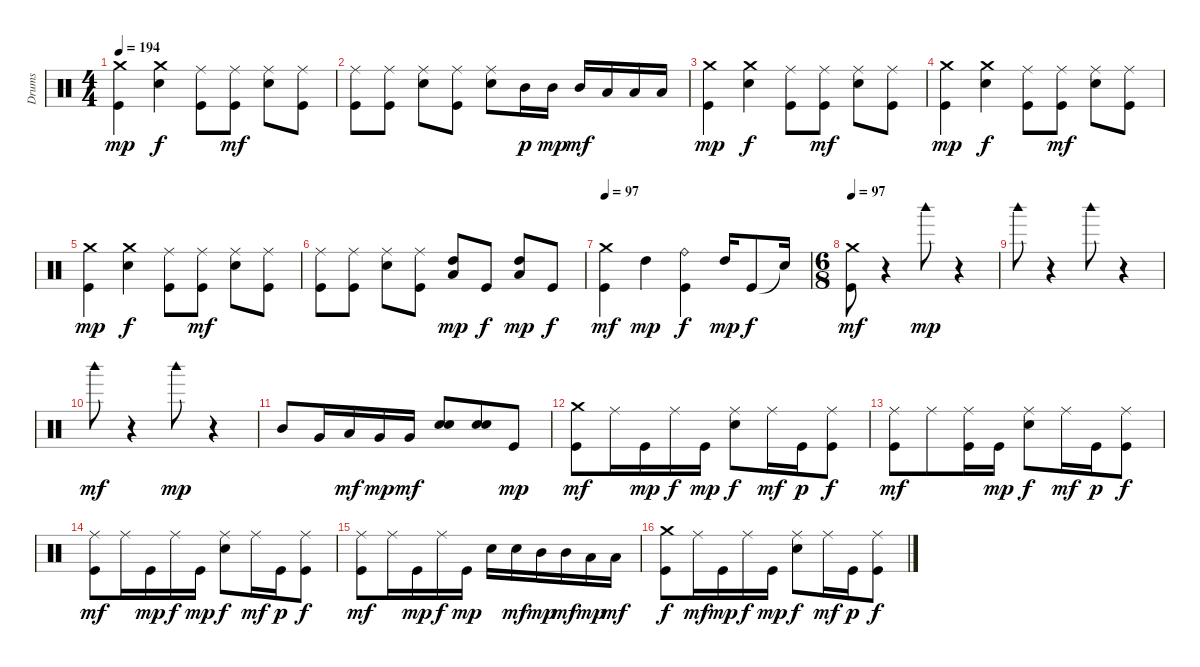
\track ("Drums" "Drums") {instrument percussion}
\staff {score}
\articulation defaults
\ts (4 4)
\tempo 194
\clef neutral
\ks c
("Crash medium (hit)" "Kick (hit)").4{dy mp} ("Crash medium (hit)" "Snare (hit) 2").4{dy f} ("Kick (hit)" "Ride (middle)").8 ("Kick (hit)" "Ride (middle)").8{dy mf} ("Snare (hit) 2" "Ride (middle)").8 ("Kick (hit)" "Ride (middle)").8 |
("Kick (hit)" "Ride (middle)").8 ("Kick (hit)" "Ride (middle)").8 ("Snare (hit) 2" "Ride (middle)").8 ("Kick (hit)" "Ride (middle)").8 ("Snare (hit) 2" "Ride (middle)").8 "Mid Tom (hit)".16{dy p} "Mid Tom (hit)".16{dy mp} "Mid Tom (hit)".16{dy mf} "Low Tom (hit)".16 "Low Tom (hit)".16 "Low Tom (hit)".16 |
("Crash medium (hit)" "Kick (hit)").4{dy mp} ("Crash medium (hit)" "Snare (hit) 2").4{dy f} ("Kick (hit)" "Ride (middle)").8 ("Kick (hit)" "Ride (middle)").8{dy mf} ("Snare (hit) 2" "Ride (middle)").8 ("Kick (hit)" "Ride (middle)").8 |
("Crash medium (hit)" "Kick (hit)").4{dy mp} ("Crash medium (hit)" "Snare (hit) 2").4{dy f} ("Kick (hit)" "Ride (middle)").8 ("Kick (hit)" "Ride (middle)").8{dy mf} ("Snare (hit) 2" "Ride (middle)").8 ("Kick (hit)" "Ride (middle)").8 |
("Crash medium (hit)" "Kick (hit)").4{dy mp} ("Crash medium (hit)" "Snare (hit) 2").4{dy f} ("Kick (hit)" "Ride (middle)").8 ("Kick (hit)" "Ride (middle)").8{dy mf} ("Snare (hit) 2" "Ride (middle)").8 ("Kick (hit)" "Ride (middle)").8 |
("Kick (hit)" "Ride (middle)").8 ("Kick (hit)" "Ride (middle)").8 ("Snare (hit) 2" "Ride (middle)").8 ("Kick (hit)" "Ride (middle)").8 ("Low Tom (hit)" "High Tom (hit)").8{dy mp} "Kick (hit)".8{dy f} ("Low Tom (hit)" "High Tom (hit)").8{dy mp} "Kick (hit)".8{dy f} |
\tempo 97
("Crash medium (hit)" "Kick (hit)").4{dy mf} "High Tom (hit)".4{dy mp} ("Ride (bell)" "Kick (hit)").4{dy f} "High Tom (hit)".16{dy mp} "Kick (hit)".8{dy f} "Snare (hit)"{t}.16 |
\ts (6 8)
\tempo 97
("Crash medium (hit)" "Kick (hit)").8{dy mf} r.4 "Woodblock high (hit)".8{dy mp} r.4 |
"Woodblock high (hit)".8 r.4 "Woodblock high (hit)".8 r.4 |
"Woodblock high (hit)".8{dy mf} r.4 "Woodblock high (hit)".8{dy mp} r.4 |
"Mid Tom (hit)".8 "Very Low Tom (hit)".16 "Low Tom (hit)".16{dy mf} "Very Low Tom (hit)".16{dy mp} "Very Low Tom (hit)".16{dy mf} ("Snare (hit) 2" "Snare (hit) 2").8 ("Snare (hit) 2" "Snare (hit) 2").8 "Kick (hit)".8{dy mp} |
("Crash medium (hit)" "Kick (hit)").8{dy mf} "Ride (middle)".16 "Kick (hit)".16{dy mp} "Ride (middle)".16{dy f} "Kick (hit)".16{dy mp} ("Snare (hit) 2" "Ride (middle)").8{dy f} "Ride (middle)".16{dy mf} "Kick (hit)".16{dy p} ("Kick (hit)" "Ride (middle)").8{dy f} |
("Kick (hit)" "Ride (middle)").8{dy mf} "Ride (middle)".8 ("Ride (middle)" "Kick (hit)").16 "Kick (hit)".16{dy mp} ("Snare (hit) 2" "Ride (middle)").8{dy f} "Ride (middle)".16{dy mf} "Kick (hit)".16{dy p} ("Kick (hit)" "Ride (middle)").8{dy f} |
("Kick (hit)" "Ride (middle)").8{dy mf} "Ride (middle)".16 "Kick (hit)".16{dy mp} "Ride (middle)".16{dy f} "Kick (hit)".16{dy mp} ("Snare (hit) 2" "Ride (middle)").8{dy f} "Ride (middle)".16{dy mf} "Kick (hit)".16{dy p} ("Kick (hit)" "Ride (middle)").8{dy f} |
("Kick (hit)" "Ride (middle)").8{dy mf} "Ride (middle)".16 "Kick (hit)".16{dy mp} "Ride (middle)".16{dy f} "Kick (hit)".16{dy mp} "Snare (hit) 2".16 "Snare (hit) 2".16{dy mf} "Mid Tom (hit)".16{dy mp} "Mid Tom (hit)".16{dy mf} "Low Tom (hit)".16{dy mp} "Low Tom (hit)".16{dy mf} |
("Kick (hit)" "Crash medium (hit)").8{dy f} "Ride (middle)".16{dy mf} "Kick (hit)".16{dy mp} "Ride (middle)".16{dy f} "Kick (hit)".16{dy mp} ("Snare (hit) 2" "Ride (middle)").8{dy f} "Ride (middle)".16{dy mf} "Kick (hit)".16{dy p} ("Kick (hit)" "Ride (middle)").8{dy f}
